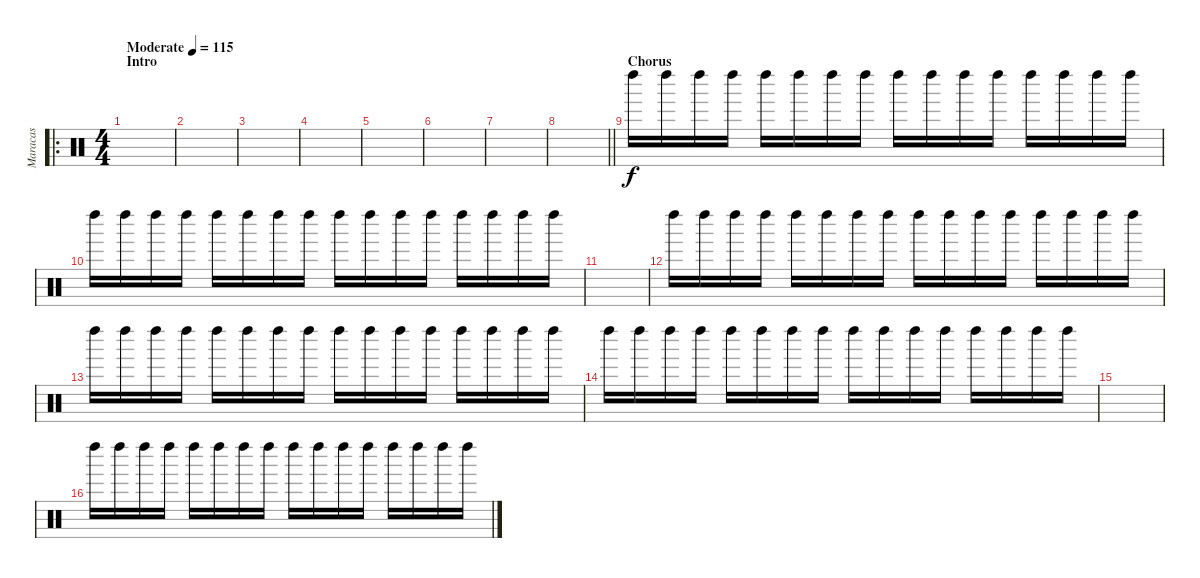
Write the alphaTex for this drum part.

\track ("Maracas" "Maracas") {instrument percussion}
\staff {score}
\articulation defaults
\ro
\ts (4 4)
\section ("" "Intro")
\tempo (115 "Moderate")
\clef neutral
\ks c
|
|
|
|
|
|
|
\barLineRight lightlight
|
\section ("" "Chorus")
"Left Maraca (hit)".16 "Left Maraca (hit)".16 "Left Maraca (hit)".16 "Left Maraca (hit)".16 "Left Maraca (hit)".16 "Left Maraca (hit)".16 "Left Maraca (hit)".16 "Left Maraca (hit)".16 "Left Maraca (hit)".16 "Left Maraca (hit)".16 "Left Maraca (hit)".16 "Left Maraca (hit)".16 "Left Maraca (hit)".16 "Left Maraca (hit)".16 "Left Maraca (hit)".16 "Left Maraca (hit)".16 |
"Left Maraca (hit)".16 "Left Maraca (hit)".16 "Left Maraca (hit)".16 "Left Maraca (hit)".16 "Left Maraca (hit)".16 "Left Maraca (hit)".16 "Left Maraca (hit)".16 "Left Maraca (hit)".16 "Left Maraca (hit)".16 "Left Maraca (hit)".16 "Left Maraca (hit)".16 "Left Maraca (hit)".16 "Left Maraca (hit)".16 "Left Maraca (hit)".16 "Left Maraca (hit)".16 "Left Maraca (hit)".16 |
|
"Left Maraca (hit)".16 "Left Maraca (hit)".16 "Left Maraca (hit)".16 "Left Maraca (hit)".16 "Left Maraca (hit)".16 "Left Maraca (hit)".16 "Left Maraca (hit)".16 "Left Maraca (hit)".16 "Left Maraca (hit)".16 "Left Maraca (hit)".16 "Left Maraca (hit)".16 "Left Maraca (hit)".16 "Left Maraca (hit)".16 "Left Maraca (hit)".16 "Left Maraca (hit)".16 "Left Maraca (hit)".16 |
"Left Maraca (hit)".16 "Left Maraca (hit)".16 "Left Maraca (hit)".16 "Left Maraca (hit)".16 "Left Maraca (hit)".16 "Left Maraca (hit)".16 "Left Maraca (hit)".16 "Left Maraca (hit)".16 "Left Maraca (hit)".16 "Left Maraca (hit)".16 "Left Maraca (hit)".16 "Left Maraca (hit)".16 "Left Maraca (hit)".16 "Left Maraca (hit)".16 "Left Maraca (hit)".16 "Left Maraca (hit)".16 |
"Left Maraca (hit)".16 "Left Maraca (hit)".16 "Left Maraca (hit)".16 "Left Maraca (hit)".16 "Left Maraca (hit)".16 "Left Maraca (hit)".16 "Left Maraca (hit)".16 "Left Maraca (hit)".16 "Left Maraca (hit)".16 "Left Maraca (hit)".16 "Left Maraca (hit)".16 "Left Maraca (hit)".16 "Left Maraca (hit)".16 "Left Maraca (hit)".16 "Left Maraca (hit)".16 "Left Maraca (hit)".16 |
|
"Left Maraca (hit)".16 "Left Maraca (hit)".16 "Left Maraca (hit)".16 "Left Maraca (hit)".16 "Left Maraca (hit)".16 "Left Maraca (hit)".16 "Left Maraca (hit)".16 "Left Maraca (hit)".16 "Left Maraca (hit)".16 "Left Maraca (hit)".16 "Left Maraca (hit)".16 "Left Maraca (hit)".16 "Left Maraca (hit)".16 "Left Maraca (hit)".16 "Left Maraca (hit)".16 "Left Maraca (hit)".16
